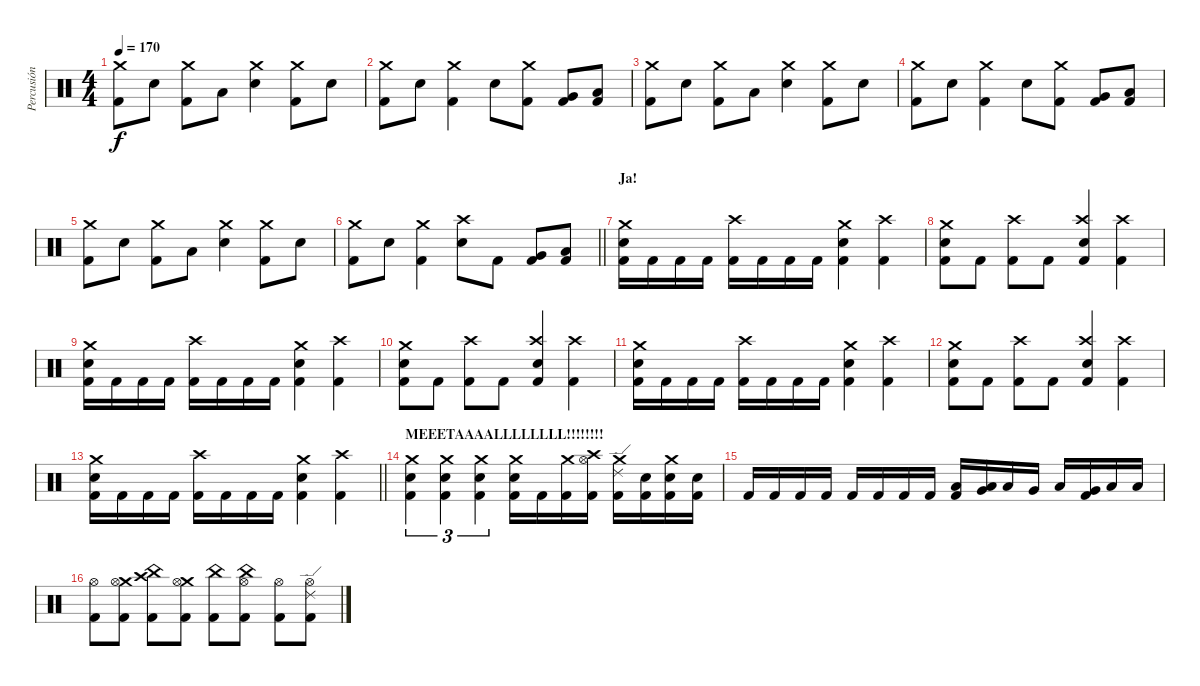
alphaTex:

\track ("Percusión" "Percusión") {instrument percussion}
\staff {score}
\articulation defaults
\ts (4 4)
\tempo 170
\clef neutral
\ks c
("Crash medium (hit)" "Kick (hit) 2").8{dy f} "Snare (hit) 2".8 ("Crash medium (hit)" "Kick (hit) 2").8 "Low Floor Tom (hit)".8 ("Crash medium (hit)" "Snare (hit) 2").4 ("Crash medium (hit)" "Kick (hit) 2").8 "Snare (hit) 2".8 |
("Crash medium (hit)" "Kick (hit) 2").8 "Snare (hit) 2".8 ("Crash medium (hit)" "Kick (hit) 2").4 "Snare (hit) 2".8 ("Crash medium (hit)" "Kick (hit) 2").8 ("Very Low Tom (hit)" "Kick (hit) 2").8 ("Low Floor Tom (hit)" "Kick (hit) 2").8 |
("Crash medium (hit)" "Kick (hit) 2").8 "Snare (hit) 2".8 ("Crash medium (hit)" "Kick (hit) 2").8 "Low Floor Tom (hit)".8 ("Crash medium (hit)" "Snare (hit) 2").4 ("Crash medium (hit)" "Kick (hit) 2").8 "Snare (hit) 2".8 |
("Crash medium (hit)" "Kick (hit) 2").8 "Snare (hit) 2".8 ("Crash medium (hit)" "Kick (hit) 2").4 "Snare (hit) 2".8 ("Crash medium (hit)" "Kick (hit) 2").8 ("Very Low Tom (hit)" "Kick (hit) 2").8 ("Low Floor Tom (hit)" "Kick (hit) 2").8 |
("Crash medium (hit)" "Kick (hit) 2").8 "Snare (hit) 2".8 ("Crash medium (hit)" "Kick (hit) 2").8 "Low Floor Tom (hit)".8 ("Crash medium (hit)" "Snare (hit) 2").4 ("Crash medium (hit)" "Kick (hit) 2").8 "Snare (hit) 2".8 |
\barLineRight lightlight
("Crash medium (hit)" "Kick (hit) 2").8 "Snare (hit) 2".8 ("Crash medium (hit)" "Kick (hit) 2").4 ("Crash high (hit)" "Snare (hit) 2").8 "Kick (hit) 2".8 ("Very Low Tom (hit)" "Kick (hit) 2").8 ("Low Floor Tom (hit)" "Kick (hit) 2").8 |
\section ("" "Ja!")
("Crash medium (hit)" "Electric Snare (hit)" "Kick (hit) 2").16 "Kick (hit) 2".16 "Kick (hit) 2".16 "Kick (hit) 2".16 ("Crash high (hit)" "Kick (hit) 2").16 "Kick (hit) 2".16 "Kick (hit) 2".16 "Kick (hit) 2".16 ("Crash medium (hit)" "Electric Snare (hit)" "Kick (hit) 2").4 ("Crash high (hit)" "Kick (hit) 2").4 |
("Crash medium (hit)" "Electric Snare (hit)" "Kick (hit) 2").8 "Kick (hit) 2".8 ("Crash high (hit)" "Kick (hit) 2").8 "Kick (hit) 2".8 ("Crash high (hit)" "Electric Snare (hit)" "Kick (hit) 2").4 ("Crash high (hit)" "Kick (hit) 2").4 |
("Crash medium (hit)" "Electric Snare (hit)" "Kick (hit) 2").16 "Kick (hit) 2".16 "Kick (hit) 2".16 "Kick (hit) 2".16 ("Crash high (hit)" "Kick (hit) 2").16 "Kick (hit) 2".16 "Kick (hit) 2".16 "Kick (hit) 2".16 ("Crash medium (hit)" "Electric Snare (hit)" "Kick (hit) 2").4 ("Crash high (hit)" "Kick (hit) 2").4 |
("Crash medium (hit)" "Electric Snare (hit)" "Kick (hit) 2").8 "Kick (hit) 2".8 ("Crash high (hit)" "Kick (hit) 2").8 "Kick (hit) 2".8 ("Crash high (hit)" "Electric Snare (hit)" "Kick (hit) 2").4 ("Crash high (hit)" "Kick (hit) 2").4 |
("Crash medium (hit)" "Electric Snare (hit)" "Kick (hit) 2").16 "Kick (hit) 2".16 "Kick (hit) 2".16 "Kick (hit) 2".16 ("Crash high (hit)" "Kick (hit) 2").16 "Kick (hit) 2".16 "Kick (hit) 2".16 "Kick (hit) 2".16 ("Crash medium (hit)" "Electric Snare (hit)" "Kick (hit) 2").4 ("Crash high (hit)" "Kick (hit) 2").4 |
("Crash medium (hit)" "Electric Snare (hit)" "Kick (hit) 2").8 "Kick (hit) 2".8 ("Crash high (hit)" "Kick (hit) 2").8 "Kick (hit) 2".8 ("Crash high (hit)" "Electric Snare (hit)" "Kick (hit) 2").4 ("Crash high (hit)" "Kick (hit) 2").4 |
\barLineRight lightlight
("Crash medium (hit)" "Electric Snare (hit)" "Kick (hit) 2").16 "Kick (hit) 2".16 "Kick (hit) 2".16 "Kick (hit) 2".16 ("Crash high (hit)" "Kick (hit) 2").16 "Kick (hit) 2".16 "Kick (hit) 2".16 "Kick (hit) 2".16 ("Crash medium (hit)" "Electric Snare (hit)" "Kick (hit) 2").4 ("Crash high (hit)" "Kick (hit) 2").4 |
\section ("" "MEEETAAAALLLLLLLL!!!!!!!!")
("Crash medium (hit)" "Electric Snare (hit)" "Kick (hit) 2").4{tu (3 2)} ("Crash medium (hit)" "Electric Snare (hit)" "Kick (hit) 2").4{tu (3 2)} ("Crash medium (hit)" "Electric Snare (hit)" "Kick (hit) 2").4{tu (3 2)} ("Crash medium (hit)" "Electric Snare (hit)" "Kick (hit) 2").16 "Kick (hit) 2".16 ("Crash medium (hit)" "Kick (hit) 2").16 ("Hi-Hat (open)" "Crash high (hit)" "Kick (hit) 2").16 ("Crash medium (hit)" "Ride (edge) 2" "Kick (hit) 2").16 ("Electric Snare (hit)" "Kick (hit) 2").16 ("Crash medium (hit)" "Electric Snare (hit)" "Kick (hit) 2").16 ("Electric Snare (hit)" "Kick (hit) 2").16 |
"Kick (hit) 2".16 "Kick (hit) 2".16 "Kick (hit) 2".16 "Kick (hit) 2".16 "Kick (hit) 2".16 "Kick (hit) 2".16 "Kick (hit) 2".16 "Kick (hit) 2".16 ("Low Tom (hit)" "Kick (hit) 2").16 ("Very Low Tom (hit)" "Low Tom (hit)").16 "Low Floor Tom (hit)".16 "Very Low Tom (hit)".16 "Low Floor Tom (hit)".16 ("Very Low Tom (hit)" "Kick (hit) 2").16 "Low Tom (hit)".16 "Low Floor Tom (hit)".16 |
("Hi-Hat (open)" "Kick (hit) 2").8 ("Crash medium (hit)" "Hi-Hat (open)" "Kick (hit) 2").8 ("Crash high (hit)" "China (hit)" "Kick (hit) 2").8 ("Crash medium (hit)" "Hi-Hat (open)" "Kick (hit) 2").8 ("China (hit)" "Kick (hit) 2").8 ("China (hit)" "Hi-Hat (open)" "Kick (hit) 2").8 ("Hi-Hat (open)" "Kick (hit) 2").8 ("Ride (edge) 2" "Hi-Hat (open)" "Kick (hit) 2").8
